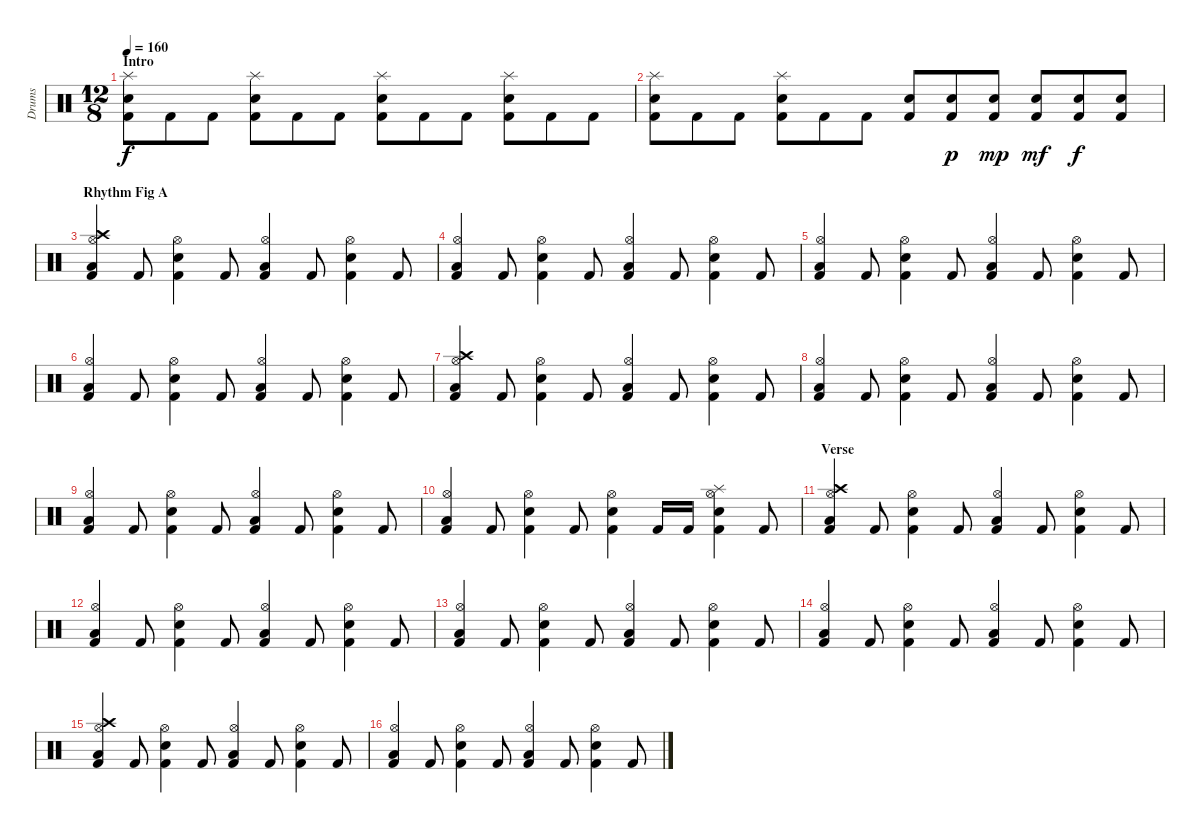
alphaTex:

\track ("Drums" "Drums") {instrument percussion}
\staff {score}
\articulation defaults
\ts (12 8)
\section ("" "Intro")
\tempo 160
\clef neutral
\ks c
("Splash (hit)" "Electric Snare (hit)" "Kick (hit) 2").8{dy f} "Kick (hit) 2".8 "Kick (hit) 2".8 ("Splash (hit)" "Electric Snare (hit)" "Kick (hit) 2").8 "Kick (hit) 2".8 "Kick (hit) 2".8 ("Splash (hit)" "Electric Snare (hit)" "Kick (hit) 2").8 "Kick (hit) 2".8 "Kick (hit) 2".8 ("Splash (hit)" "Electric Snare (hit)" "Kick (hit) 2").8 "Kick (hit) 2".8 "Kick (hit) 2".8 |
("Splash (hit)" "Electric Snare (hit)" "Kick (hit) 2").8 "Kick (hit) 2".8 "Kick (hit) 2".8 ("Splash (hit)" "Electric Snare (hit)" "Kick (hit) 2").8 "Kick (hit) 2".8 "Kick (hit) 2".8 ("Electric Snare (hit)" "Kick (hit) 2").8 ("Electric Snare (hit)" "Kick (hit) 2").8{dy p} ("Electric Snare (hit)" "Kick (hit) 2").8{dy mp} ("Electric Snare (hit)" "Kick (hit) 2").8{dy mf} ("Electric Snare (hit)" "Kick (hit) 2").8{dy f} ("Electric Snare (hit)" "Kick (hit) 2").8 |
\section ("" "Rhythm Fig A")
("Crash high (hit)" "Hi-Hat (open)" "Low Tom (hit)" "Kick (hit) 2").4 "Kick (hit) 2".8 ("Hi-Hat (open)" "Electric Snare (hit)" "Kick (hit) 2").4 "Kick (hit) 2".8 ("Hi-Hat (open)" "Low Tom (hit)" "Kick (hit) 2").4 "Kick (hit) 2".8 ("Hi-Hat (open)" "Electric Snare (hit)" "Kick (hit) 2").4 "Kick (hit) 2".8 |
("Hi-Hat (open)" "Low Tom (hit)" "Kick (hit) 2").4 "Kick (hit) 2".8 ("Hi-Hat (open)" "Electric Snare (hit)" "Kick (hit) 2").4 "Kick (hit) 2".8 ("Hi-Hat (open)" "Low Tom (hit)" "Kick (hit) 2").4 "Kick (hit) 2".8 ("Hi-Hat (open)" "Electric Snare (hit)" "Kick (hit) 2").4 "Kick (hit) 2".8 |
("Hi-Hat (open)" "Low Tom (hit)" "Kick (hit) 2").4 "Kick (hit) 2".8 ("Hi-Hat (open)" "Electric Snare (hit)" "Kick (hit) 2").4 "Kick (hit) 2".8 ("Hi-Hat (open)" "Low Tom (hit)" "Kick (hit) 2").4 "Kick (hit) 2".8 ("Hi-Hat (open)" "Electric Snare (hit)" "Kick (hit) 2").4 "Kick (hit) 2".8 |
("Hi-Hat (open)" "Low Tom (hit)" "Kick (hit) 2").4 "Kick (hit) 2".8 ("Hi-Hat (open)" "Electric Snare (hit)" "Kick (hit) 2").4 "Kick (hit) 2".8 ("Hi-Hat (open)" "Low Tom (hit)" "Kick (hit) 2").4 "Kick (hit) 2".8 ("Hi-Hat (open)" "Electric Snare (hit)" "Kick (hit) 2").4 "Kick (hit) 2".8 |
("Crash high (hit)" "Hi-Hat (open)" "Low Tom (hit)" "Kick (hit) 2").4 "Kick (hit) 2".8 ("Hi-Hat (open)" "Electric Snare (hit)" "Kick (hit) 2").4 "Kick (hit) 2".8 ("Hi-Hat (open)" "Low Tom (hit)" "Kick (hit) 2").4 "Kick (hit) 2".8 ("Hi-Hat (open)" "Electric Snare (hit)" "Kick (hit) 2").4 "Kick (hit) 2".8 |
("Hi-Hat (open)" "Low Tom (hit)" "Kick (hit) 2").4 "Kick (hit) 2".8 ("Hi-Hat (open)" "Electric Snare (hit)" "Kick (hit) 2").4 "Kick (hit) 2".8 ("Hi-Hat (open)" "Low Tom (hit)" "Kick (hit) 2").4 "Kick (hit) 2".8 ("Hi-Hat (open)" "Electric Snare (hit)" "Kick (hit) 2").4 "Kick (hit) 2".8 |
("Hi-Hat (open)" "Low Tom (hit)" "Kick (hit) 2").4 "Kick (hit) 2".8 ("Hi-Hat (open)" "Electric Snare (hit)" "Kick (hit) 2").4 "Kick (hit) 2".8 ("Hi-Hat (open)" "Low Tom (hit)" "Kick (hit) 2").4 "Kick (hit) 2".8 ("Hi-Hat (open)" "Electric Snare (hit)" "Kick (hit) 2").4 "Kick (hit) 2".8 |
("Hi-Hat (open)" "Low Tom (hit)" "Kick (hit) 2").4 "Kick (hit) 2".8 ("Hi-Hat (open)" "Electric Snare (hit)" "Kick (hit) 2").4 "Kick (hit) 2".8 ("Hi-Hat (open)" "Electric Snare (hit)" "Kick (hit) 2").4 "Kick (hit) 2".16 "Kick (hit) 2".16 ("Splash (hit)" "Hi-Hat (open)" "Electric Snare (hit)" "Kick (hit) 2").4 "Kick (hit) 2".8 |
\section ("" "Verse")
("Crash high (hit)" "Hi-Hat (open)" "Low Tom (hit)" "Kick (hit) 2").4 "Kick (hit) 2".8 ("Hi-Hat (open)" "Electric Snare (hit)" "Kick (hit) 2").4 "Kick (hit) 2".8 ("Hi-Hat (open)" "Low Tom (hit)" "Kick (hit) 2").4 "Kick (hit) 2".8 ("Hi-Hat (open)" "Electric Snare (hit)" "Kick (hit) 2").4 "Kick (hit) 2".8 |
("Hi-Hat (open)" "Low Tom (hit)" "Kick (hit) 2").4 "Kick (hit) 2".8 ("Hi-Hat (open)" "Electric Snare (hit)" "Kick (hit) 2").4 "Kick (hit) 2".8 ("Hi-Hat (open)" "Low Tom (hit)" "Kick (hit) 2").4 "Kick (hit) 2".8 ("Hi-Hat (open)" "Electric Snare (hit)" "Kick (hit) 2").4 "Kick (hit) 2".8 |
("Hi-Hat (open)" "Low Tom (hit)" "Kick (hit) 2").4 "Kick (hit) 2".8 ("Hi-Hat (open)" "Electric Snare (hit)" "Kick (hit) 2").4 "Kick (hit) 2".8 ("Hi-Hat (open)" "Low Tom (hit)" "Kick (hit) 2").4 "Kick (hit) 2".8 ("Hi-Hat (open)" "Electric Snare (hit)" "Kick (hit) 2").4 "Kick (hit) 2".8 |
("Hi-Hat (open)" "Low Tom (hit)" "Kick (hit) 2").4 "Kick (hit) 2".8 ("Hi-Hat (open)" "Electric Snare (hit)" "Kick (hit) 2").4 "Kick (hit) 2".8 ("Hi-Hat (open)" "Low Tom (hit)" "Kick (hit) 2").4 "Kick (hit) 2".8 ("Hi-Hat (open)" "Electric Snare (hit)" "Kick (hit) 2").4 "Kick (hit) 2".8 |
("Crash high (hit)" "Hi-Hat (open)" "Low Tom (hit)" "Kick (hit) 2").4 "Kick (hit) 2".8 ("Hi-Hat (open)" "Electric Snare (hit)" "Kick (hit) 2").4 "Kick (hit) 2".8 ("Hi-Hat (open)" "Low Tom (hit)" "Kick (hit) 2").4 "Kick (hit) 2".8 ("Hi-Hat (open)" "Electric Snare (hit)" "Kick (hit) 2").4 "Kick (hit) 2".8 |
("Hi-Hat (open)" "Low Tom (hit)" "Kick (hit) 2").4 "Kick (hit) 2".8 ("Hi-Hat (open)" "Electric Snare (hit)" "Kick (hit) 2").4 "Kick (hit) 2".8 ("Hi-Hat (open)" "Low Tom (hit)" "Kick (hit) 2").4 "Kick (hit) 2".8 ("Hi-Hat (open)" "Electric Snare (hit)" "Kick (hit) 2").4 "Kick (hit) 2".8
